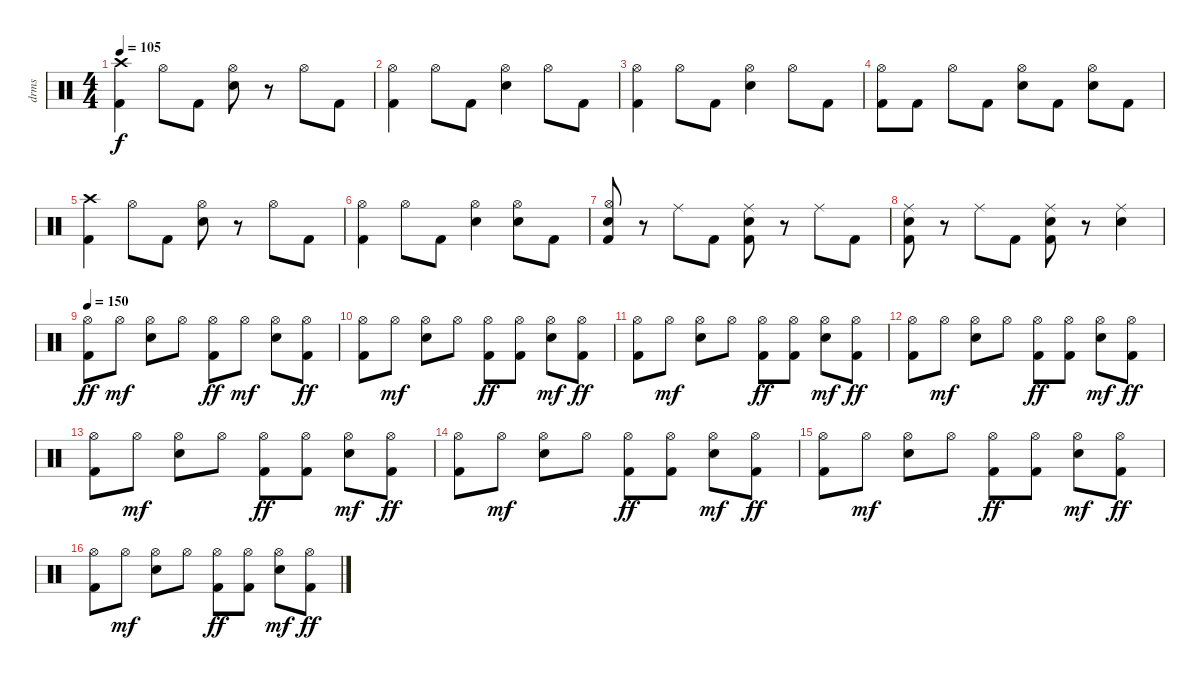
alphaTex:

\track ("drms" "drms") {instrument percussion}
\staff {score}
\articulation defaults
\ts (4 4)
\tempo 105
\clef neutral
\ks c
("Crash high (hit)" "Kick (hit) 2").4{dy f} "Hi-Hat (open)".8 "Kick (hit) 2".8 ("Hi-Hat (open)" "Snare (hit) 2").8 r.8 "Hi-Hat (open)".8 "Kick (hit) 2".8 |
("Hi-Hat (open)" "Kick (hit) 2").4 "Hi-Hat (open)".8 "Kick (hit) 2".8 ("Hi-Hat (open)" "Snare (hit) 2").4 "Hi-Hat (open)".8 "Kick (hit) 2".8 |
("Hi-Hat (open)" "Kick (hit) 2").4 "Hi-Hat (open)".8 "Kick (hit) 2".8 ("Hi-Hat (open)" "Snare (hit) 2").4 "Hi-Hat (open)".8 "Kick (hit) 2".8 |
("Hi-Hat (open)" "Kick (hit) 2").8 "Kick (hit) 2".8 "Hi-Hat (open)".8 "Kick (hit) 2".8 ("Hi-Hat (open)" "Snare (hit) 2").8 "Kick (hit) 2".8 ("Hi-Hat (open)" "Snare (hit) 2").8 "Kick (hit) 2".8 |
("Crash high (hit)" "Kick (hit) 2").4 "Hi-Hat (open)".8 "Kick (hit) 2".8 ("Hi-Hat (open)" "Snare (hit) 2").8 r.8 "Hi-Hat (open)".8 "Kick (hit) 2".8 |
("Hi-Hat (open)" "Kick (hit) 2").4 "Hi-Hat (open)".8 "Kick (hit) 2".8 ("Hi-Hat (open)" "Snare (hit) 2").4 ("Hi-Hat (open)" "Snare (hit) 2").8 "Kick (hit) 2".8 |
("Hi-Hat (open)" "Snare (hit) 2" "Kick (hit) 2").8 r.8 "Ride (middle)".8 "Kick (hit) 2".8 ("Ride (middle)" "Snare (hit) 2" "Kick (hit) 2").8 r.8 "Ride (middle)".8 "Kick (hit) 2".8 |
("Ride (middle)" "Snare (hit) 2" "Kick (hit) 2").8 r.8 "Ride (middle)".8 "Kick (hit) 2".8 ("Ride (middle)" "Snare (hit) 2" "Kick (hit) 2").8 r.8 ("Ride (middle)" "Snare (hit) 2").4 |
\tempo 150
("Hi-Hat (open)" "Kick (hit) 2").8{dy ff} "Hi-Hat (open)".8{dy mf} ("Hi-Hat (open)" "Snare (hit) 2").8 "Hi-Hat (open)".8 ("Hi-Hat (open)" "Kick (hit) 2").8{dy ff} "Hi-Hat (open)".8{dy mf} ("Hi-Hat (open)" "Snare (hit) 2").8 ("Hi-Hat (open)" "Kick (hit) 2").8{dy ff} |
("Hi-Hat (open)" "Kick (hit) 2").8 "Hi-Hat (open)".8{dy mf} ("Hi-Hat (open)" "Snare (hit) 2").8 "Hi-Hat (open)".8 ("Hi-Hat (open)" "Kick (hit) 2").8{dy ff} ("Hi-Hat (open)" "Kick (hit) 2").8 ("Hi-Hat (open)" "Snare (hit) 2").8{dy mf} ("Hi-Hat (open)" "Kick (hit) 2").8{dy ff} |
("Hi-Hat (open)" "Kick (hit) 2").8 "Hi-Hat (open)".8{dy mf} ("Hi-Hat (open)" "Snare (hit) 2").8 "Hi-Hat (open)".8 ("Hi-Hat (open)" "Kick (hit) 2").8{dy ff} ("Hi-Hat (open)" "Kick (hit) 2").8 ("Hi-Hat (open)" "Snare (hit) 2").8{dy mf} ("Hi-Hat (open)" "Kick (hit) 2").8{dy ff} |
("Hi-Hat (open)" "Kick (hit) 2").8 "Hi-Hat (open)".8{dy mf} ("Hi-Hat (open)" "Snare (hit) 2").8 "Hi-Hat (open)".8 ("Hi-Hat (open)" "Kick (hit) 2").8{dy ff} ("Hi-Hat (open)" "Kick (hit) 2").8 ("Hi-Hat (open)" "Snare (hit) 2").8{dy mf} ("Hi-Hat (open)" "Kick (hit) 2").8{dy ff} |
("Hi-Hat (open)" "Kick (hit) 2").8 "Hi-Hat (open)".8{dy mf} ("Hi-Hat (open)" "Snare (hit) 2").8 "Hi-Hat (open)".8 ("Hi-Hat (open)" "Kick (hit) 2").8{dy ff} ("Hi-Hat (open)" "Kick (hit) 2").8 ("Hi-Hat (open)" "Snare (hit) 2").8{dy mf} ("Hi-Hat (open)" "Kick (hit) 2").8{dy ff} |
("Hi-Hat (open)" "Kick (hit) 2").8 "Hi-Hat (open)".8{dy mf} ("Hi-Hat (open)" "Snare (hit) 2").8 "Hi-Hat (open)".8 ("Hi-Hat (open)" "Kick (hit) 2").8{dy ff} ("Hi-Hat (open)" "Kick (hit) 2").8 ("Hi-Hat (open)" "Snare (hit) 2").8{dy mf} ("Hi-Hat (open)" "Kick (hit) 2").8{dy ff} |
("Hi-Hat (open)" "Kick (hit) 2").8 "Hi-Hat (open)".8{dy mf} ("Hi-Hat (open)" "Snare (hit) 2").8 "Hi-Hat (open)".8 ("Hi-Hat (open)" "Kick (hit) 2").8{dy ff} ("Hi-Hat (open)" "Kick (hit) 2").8 ("Hi-Hat (open)" "Snare (hit) 2").8{dy mf} ("Hi-Hat (open)" "Kick (hit) 2").8{dy ff} |
("Hi-Hat (open)" "Kick (hit) 2").8 "Hi-Hat (open)".8{dy mf} ("Hi-Hat (open)" "Snare (hit) 2").8 "Hi-Hat (open)".8 ("Hi-Hat (open)" "Kick (hit) 2").8{dy ff} ("Hi-Hat (open)" "Kick (hit) 2").8 ("Hi-Hat (open)" "Snare (hit) 2").8{dy mf} ("Hi-Hat (open)" "Kick (hit) 2").8{dy ff}
